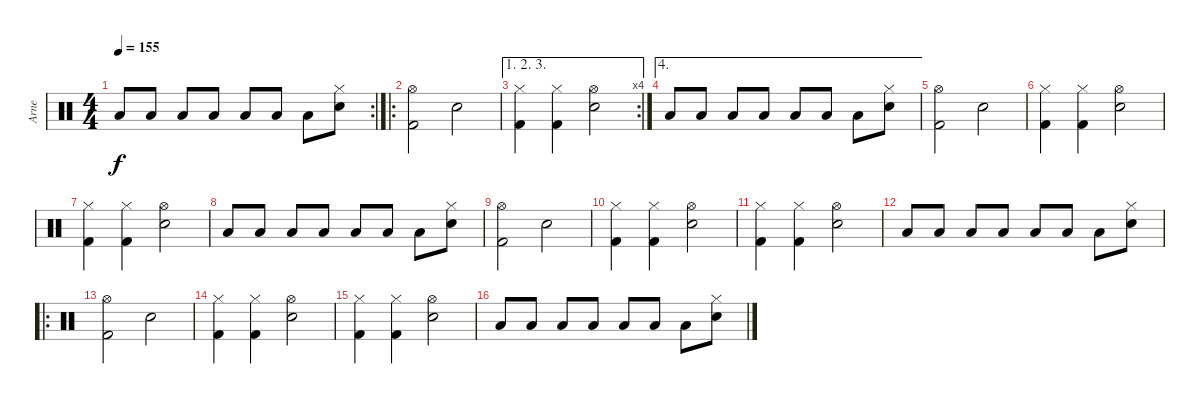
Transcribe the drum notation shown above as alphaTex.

\track ("Arne" "Arne") {instrument percussion}
\staff {score}
\articulation defaults
\rc 2
\ts (4 4)
\tempo 155
\clef neutral
\ks c "Low Tom (hit)".8{dy f} "Low Tom (hit)".8 "Low Tom (hit)".8 "Low Tom (hit)".8 "Low Tom (hit)".8 "Low Tom (hit)".8 "Low Tom (hit)".8
("Hi-Hat (closed)" "Electric Snare (hit)").8 |
\ro
("Kick (hit) 2" "Hi-Hat (open)").2 "Electric Snare (hit)".2 |
\ae (1 2 3)
\rc 4
("Kick (hit) 2" "Hi-Hat (closed)").4 ("Kick (hit) 2" "Hi-Hat (closed)").4 ("Electric Snare (hit)" "Hi-Hat (open)").2 |
\ae 4 "Low Tom (hit)".8 "Low Tom (hit)".8 "Low Tom (hit)".8 "Low Tom (hit)".8 "Low Tom (hit)".8 "Low Tom (hit)".8 "Low Tom (hit)".8
("Hi-Hat (closed)" "Electric Snare (hit)").8 |
("Kick (hit) 2" "Hi-Hat (open)").2 "Electric Snare (hit)".2 |
("Kick (hit) 2" "Hi-Hat (closed)").4 ("Kick (hit) 2" "Hi-Hat (closed)").4 ("Electric Snare (hit)" "Hi-Hat (open)").2 |
("Kick (hit) 2" "Hi-Hat (closed)").4 ("Kick (hit) 2" "Hi-Hat (closed)").4 ("Electric Snare (hit)" "Hi-Hat (open)").2 |
"Low Tom (hit)".8 "Low Tom (hit)".8 "Low Tom (hit)".8 "Low Tom (hit)".8 "Low Tom (hit)".8 "Low Tom (hit)".8 "Low Tom (hit)".8 ("Hi-Hat (closed)" "Electric Snare (hit)").8 |
("Kick (hit) 2" "Hi-Hat (open)").2 "Electric Snare (hit)".2 |
("Kick (hit) 2" "Hi-Hat (closed)").4 ("Kick (hit) 2" "Hi-Hat (closed)").4 ("Electric Snare (hit)" "Hi-Hat (open)").2 |
("Kick (hit) 2" "Hi-Hat (closed)").4 ("Kick (hit) 2" "Hi-Hat (closed)").4 ("Electric Snare (hit)" "Hi-Hat (open)").2 |
"Low Tom (hit)".8 "Low Tom (hit)".8 "Low Tom (hit)".8 "Low Tom (hit)".8 "Low Tom (hit)".8 "Low Tom (hit)".8 "Low Tom (hit)".8 ("Hi-Hat (closed)" "Electric Snare (hit)").8 |
\ro
("Kick (hit) 2" "Hi-Hat (open)").2 "Electric Snare (hit)".2 |
("Kick (hit) 2" "Hi-Hat (closed)").4 ("Kick (hit) 2" "Hi-Hat (closed)").4 ("Electric Snare (hit)" "Hi-Hat (open)").2 |
("Kick (hit) 2" "Hi-Hat (closed)").4 ("Kick (hit) 2" "Hi-Hat (closed)").4 ("Electric Snare (hit)" "Hi-Hat (open)").2 |
"Low Tom (hit)".8 "Low Tom (hit)".8 "Low Tom (hit)".8 "Low Tom (hit)".8 "Low Tom (hit)".8 "Low Tom (hit)".8 "Low Tom (hit)".8 ("Hi-Hat (closed)" "Electric Snare (hit)").8
